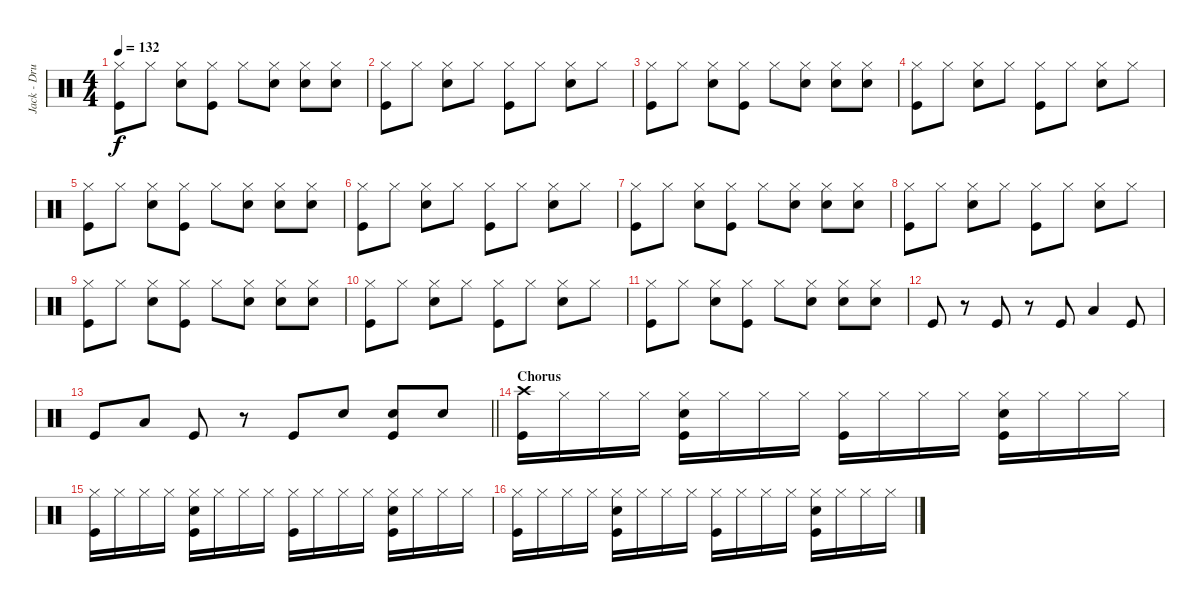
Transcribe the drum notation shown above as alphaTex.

\track ("Jack - Drums" "Jack - Dru") {instrument percussion}
\staff {score}
\articulation defaults
\ts (4 4)
\tempo 132
\clef neutral
\ks c
("Hi-Hat (closed)" "Kick (hit)").8{dy f} "Hi-Hat (closed)".8 ("Hi-Hat (closed)" "Snare (hit) 2").8 ("Hi-Hat (closed)" "Kick (hit)").8 "Hi-Hat (closed)".8 ("Hi-Hat (closed)" "Snare (hit) 2").8 ("Hi-Hat (closed)" "Snare (hit) 2").8 ("Hi-Hat (closed)" "Snare (hit) 2").8 |
("Hi-Hat (closed)" "Kick (hit)").8 "Hi-Hat (closed)".8 ("Hi-Hat (closed)" "Snare (hit) 2").8 "Hi-Hat (closed)".8 ("Hi-Hat (closed)" "Kick (hit)").8 "Hi-Hat (closed)".8 ("Hi-Hat (closed)" "Snare (hit) 2").8 "Hi-Hat (closed)".8 |
("Hi-Hat (closed)" "Kick (hit)").8 "Hi-Hat (closed)".8 ("Hi-Hat (closed)" "Snare (hit) 2").8 ("Hi-Hat (closed)" "Kick (hit)").8 "Hi-Hat (closed)".8 ("Hi-Hat (closed)" "Snare (hit) 2").8 ("Hi-Hat (closed)" "Snare (hit) 2").8 ("Hi-Hat (closed)" "Snare (hit) 2").8 |
("Hi-Hat (closed)" "Kick (hit)").8 "Hi-Hat (closed)".8 ("Hi-Hat (closed)" "Snare (hit) 2").8 "Hi-Hat (closed)".8 ("Hi-Hat (closed)" "Kick (hit)").8 "Hi-Hat (closed)".8 ("Hi-Hat (closed)" "Snare (hit) 2").8 "Hi-Hat (closed)".8 |
("Hi-Hat (closed)" "Kick (hit)").8 "Hi-Hat (closed)".8 ("Hi-Hat (closed)" "Snare (hit) 2").8 ("Hi-Hat (closed)" "Kick (hit)").8 "Hi-Hat (closed)".8 ("Hi-Hat (closed)" "Snare (hit) 2").8 ("Hi-Hat (closed)" "Snare (hit) 2").8 ("Hi-Hat (closed)" "Snare (hit) 2").8 |
("Hi-Hat (closed)" "Kick (hit)").8 "Hi-Hat (closed)".8 ("Hi-Hat (closed)" "Snare (hit) 2").8 "Hi-Hat (closed)".8 ("Hi-Hat (closed)" "Kick (hit)").8 "Hi-Hat (closed)".8 ("Hi-Hat (closed)" "Snare (hit) 2").8 "Hi-Hat (closed)".8 |
("Hi-Hat (closed)" "Kick (hit)").8 "Hi-Hat (closed)".8 ("Hi-Hat (closed)" "Snare (hit) 2").8 ("Hi-Hat (closed)" "Kick (hit)").8 "Hi-Hat (closed)".8 ("Hi-Hat (closed)" "Snare (hit) 2").8 ("Hi-Hat (closed)" "Snare (hit) 2").8 ("Hi-Hat (closed)" "Snare (hit) 2").8 |
("Hi-Hat (closed)" "Kick (hit)").8 "Hi-Hat (closed)".8 ("Hi-Hat (closed)" "Snare (hit) 2").8 "Hi-Hat (closed)".8 ("Hi-Hat (closed)" "Kick (hit)").8 "Hi-Hat (closed)".8 ("Hi-Hat (closed)" "Snare (hit) 2").8 "Hi-Hat (closed)".8 |
("Hi-Hat (closed)" "Kick (hit)").8 "Hi-Hat (closed)".8 ("Hi-Hat (closed)" "Snare (hit) 2").8 ("Hi-Hat (closed)" "Kick (hit)").8 "Hi-Hat (closed)".8 ("Hi-Hat (closed)" "Snare (hit) 2").8 ("Hi-Hat (closed)" "Snare (hit) 2").8 ("Hi-Hat (closed)" "Snare (hit) 2").8 |
("Hi-Hat (closed)" "Kick (hit)").8 "Hi-Hat (closed)".8 ("Hi-Hat (closed)" "Snare (hit) 2").8 "Hi-Hat (closed)".8 ("Hi-Hat (closed)" "Kick (hit)").8 "Hi-Hat (closed)".8 ("Hi-Hat (closed)" "Snare (hit) 2").8 "Hi-Hat (closed)".8 |
("Hi-Hat (closed)" "Kick (hit)").8 "Hi-Hat (closed)".8 ("Hi-Hat (closed)" "Snare (hit) 2").8 ("Hi-Hat (closed)" "Kick (hit)").8 "Hi-Hat (closed)".8 ("Hi-Hat (closed)" "Snare (hit) 2").8 ("Hi-Hat (closed)" "Snare (hit) 2").8 ("Hi-Hat (closed)" "Snare (hit) 2").8 |
"Kick (hit)".8 r.8 "Kick (hit)".8 r.8 "Kick (hit)".8 "Low Floor Tom (hit)".4 "Kick (hit)".8 |
\barLineRight lightlight "Kick (hit)".8 "Low Floor Tom (hit)".8 "Kick (hit)".8
r.8 "Kick (hit)".8 "Snare (hit) 2".8 ("Snare (hit) 2" "Kick (hit)").8 "Snare (hit) 2".8 |
\section ("" "Chorus")
("Crash high (hit)" "Kick (hit)").16 "Hi-Hat (closed)".16 "Hi-Hat (closed)".16 "Hi-Hat (closed)".16 ("Hi-Hat (closed)" "Snare (hit) 2" "Kick (hit)").16 "Hi-Hat (closed)".16 "Hi-Hat (closed)".16 "Hi-Hat (closed)".16 ("Hi-Hat (closed)" "Kick (hit)").16 "Hi-Hat (closed)".16 "Hi-Hat (closed)".16 "Hi-Hat (closed)".16 ("Hi-Hat (closed)" "Snare (hit) 2" "Kick (hit)").16 "Hi-Hat (closed)".16 "Hi-Hat (closed)".16 "Hi-Hat (closed)".16 |
("Hi-Hat (closed)" "Kick (hit)").16 "Hi-Hat (closed)".16 "Hi-Hat (closed)".16 "Hi-Hat (closed)".16 ("Hi-Hat (closed)" "Snare (hit) 2" "Kick (hit)").16 "Hi-Hat (closed)".16 "Hi-Hat (closed)".16 "Hi-Hat (closed)".16 ("Hi-Hat (closed)" "Kick (hit)").16 "Hi-Hat (closed)".16 "Hi-Hat (closed)".16 "Hi-Hat (closed)".16 ("Hi-Hat (closed)" "Snare (hit) 2" "Kick (hit)").16 "Hi-Hat (closed)".16 "Hi-Hat (closed)".16 "Hi-Hat (closed)".16 |
("Hi-Hat (closed)" "Kick (hit)").16 "Hi-Hat (closed)".16 "Hi-Hat (closed)".16 "Hi-Hat (closed)".16 ("Hi-Hat (closed)" "Snare (hit) 2" "Kick (hit)").16 "Hi-Hat (closed)".16 "Hi-Hat (closed)".16 "Hi-Hat (closed)".16 ("Hi-Hat (closed)" "Kick (hit)").16 "Hi-Hat (closed)".16 "Hi-Hat (closed)".16 "Hi-Hat (closed)".16 ("Hi-Hat (closed)" "Snare (hit) 2" "Kick (hit)").16 "Hi-Hat (closed)".16 "Hi-Hat (closed)".16 "Hi-Hat (closed)".16
